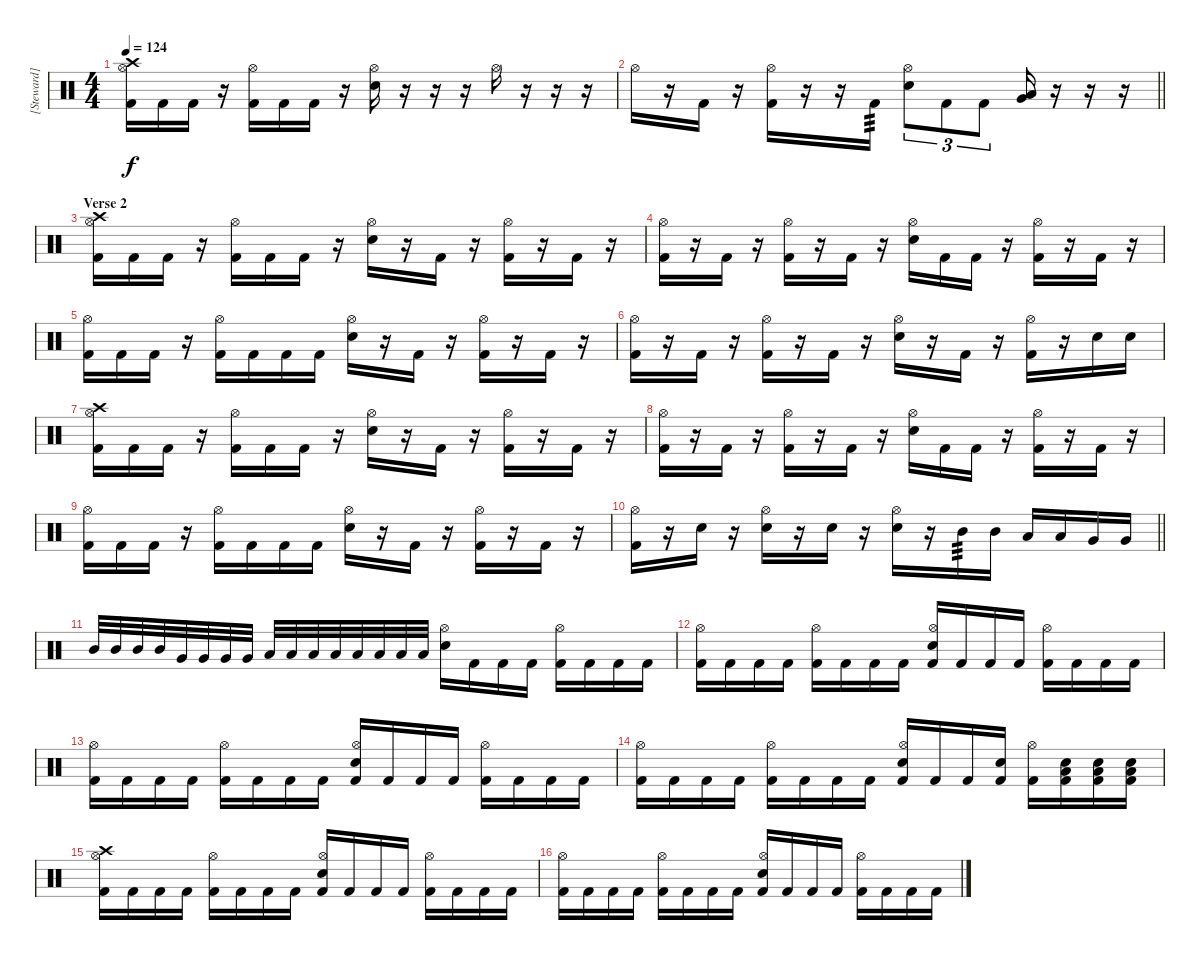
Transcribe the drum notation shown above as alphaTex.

\track ("[Steward]" "[Steward]") {solo instrument percussion}
\staff {score}
\articulation defaults
\ts (4 4)
\tempo 124
\clef neutral
\ks c
("Crash high (hit)" "Kick (hit) 2" "Hi-Hat (open)").16{dy f} "Kick (hit) 2".16 "Kick (hit) 2".16 r.16 ("Kick (hit) 2" "Hi-Hat (open)").16 "Kick (hit) 2".16 "Kick (hit) 2".16 r.16 ("Electric Snare (hit)" "Hi-Hat (open)").16 r.16 r.16 r.16 "Hi-Hat (open)".16 r.16 r.16 r.16 |
\barLineRight lightlight "Hi-Hat (open)".16
r.16 "Kick (hit) 2".16 r.16 ("Kick (hit) 2" "Hi-Hat (open)").16 r.16 r.16 "Kick (hit) 2".16{tp 3} ("Electric Snare (hit)" "Hi-Hat (open)").8{tu (3 2)} "Kick (hit) 2".8{tu (3 2)} "Kick (hit) 2".8{tu (3 2)} ("Very Low Tom (hit)" "Low Tom (hit)").16 r.16 r.16 r.16 |
\section ("" "Verse 2")
("Crash high (hit)" "Kick (hit) 2" "Hi-Hat (open)").16 "Kick (hit) 2".16 "Kick (hit) 2".16 r.16 ("Kick (hit) 2" "Hi-Hat (open)").16 "Kick (hit) 2".16 "Kick (hit) 2".16 r.16 ("Electric Snare (hit)" "Hi-Hat (open)").16 r.16 "Kick (hit) 2".16 r.16 ("Kick (hit) 2" "Hi-Hat (open)").16 r.16 "Kick (hit) 2".16 r.16 |
("Kick (hit) 2" "Hi-Hat (open)").16 r.16 "Kick (hit) 2".16 r.16 ("Kick (hit) 2" "Hi-Hat (open)").16 r.16 "Kick (hit) 2".16 r.16 ("Electric Snare (hit)" "Hi-Hat (open)").16 "Kick (hit) 2".16 "Kick (hit) 2".16 r.16 ("Kick (hit) 2" "Hi-Hat (open)").16 r.16 "Kick (hit) 2".16 r.16 |
("Kick (hit) 2" "Hi-Hat (open)").16 "Kick (hit) 2".16 "Kick (hit) 2".16 r.16 ("Kick (hit) 2" "Hi-Hat (open)").16 "Kick (hit) 2".16 "Kick (hit) 2".16 "Kick (hit) 2".16 ("Electric Snare (hit)" "Hi-Hat (open)").16 r.16 "Kick (hit) 2".16 r.16 ("Kick (hit) 2" "Hi-Hat (open)").16 r.16 "Kick (hit) 2".16 r.16 |
("Kick (hit) 2" "Hi-Hat (open)").16 r.16 "Kick (hit) 2".16 r.16 ("Kick (hit) 2" "Hi-Hat (open)").16 r.16 "Kick (hit) 2".16 r.16 ("Electric Snare (hit)" "Hi-Hat (open)").16 r.16 "Kick (hit) 2".16 r.16 ("Kick (hit) 2" "Hi-Hat (open)").16 r.16 "Electric Snare (hit)".16 "Electric Snare (hit)".16 |
("Crash high (hit)" "Kick (hit) 2" "Hi-Hat (open)").16 "Kick (hit) 2".16 "Kick (hit) 2".16 r.16 ("Kick (hit) 2" "Hi-Hat (open)").16 "Kick (hit) 2".16 "Kick (hit) 2".16 r.16 ("Electric Snare (hit)" "Hi-Hat (open)").16 r.16 "Kick (hit) 2".16 r.16 ("Kick (hit) 2" "Hi-Hat (open)").16 r.16 "Kick (hit) 2".16 r.16 |
("Kick (hit) 2" "Hi-Hat (open)").16 r.16 "Kick (hit) 2".16 r.16 ("Kick (hit) 2" "Hi-Hat (open)").16 r.16 "Kick (hit) 2".16 r.16 ("Electric Snare (hit)" "Hi-Hat (open)").16 "Kick (hit) 2".16 "Kick (hit) 2".16 r.16 ("Kick (hit) 2" "Hi-Hat (open)").16 r.16 "Kick (hit) 2".16 r.16 |
("Kick (hit) 2" "Hi-Hat (open)").16 "Kick (hit) 2".16 "Kick (hit) 2".16 r.16 ("Kick (hit) 2" "Hi-Hat (open)").16 "Kick (hit) 2".16 "Kick (hit) 2".16 "Kick (hit) 2".16 ("Electric Snare (hit)" "Hi-Hat (open)").16 r.16 "Kick (hit) 2".16 r.16 ("Kick (hit) 2" "Hi-Hat (open)").16 r.16 "Kick (hit) 2".16 r.16 |
\barLineRight lightlight
("Kick (hit) 2" "Hi-Hat (open)").16 r.16 "Electric Snare (hit)".16 r.16 ("Electric Snare (hit)" "Hi-Hat (open)").16 r.16 "Electric Snare (hit)".16 r.16 ("Electric Snare (hit)" "Hi-Hat (open)").16 r.16 "Mid Tom (hit)".16{tp 3} "Mid Tom (hit)".16 "Low Tom (hit)".16 "Low Tom (hit)".16 "Very Low Tom (hit)".16 "Very Low Tom (hit)".16 |
"Mid Tom (hit)".32 "Mid Tom (hit)".32 "Mid Tom (hit)".32 "Mid Tom (hit)".32 "Very Low Tom (hit)".32 "Very Low Tom (hit)".32 "Very Low Tom (hit)".32 "Very Low Tom (hit)".32 "Low Tom (hit)".32 "Low Tom (hit)".32 "Low Tom (hit)".32 "Low Tom (hit)".32 "Low Floor Tom (hit)".32 "Low Floor Tom (hit)".32 "Low Floor Tom (hit)".32 "Low Floor Tom (hit)".32 ("Electric Snare (hit)" "Hi-Hat (open)").16 "Kick (hit) 2".16 "Kick (hit) 2".16 "Kick (hit) 2".16 ("Kick (hit) 2" "Hi-Hat (open)").16 "Kick (hit) 2".16 "Kick (hit) 2".16 "Kick (hit) 2".16 |
("Kick (hit) 2" "Hi-Hat (open)").16 "Kick (hit) 2".16 "Kick (hit) 2".16 "Kick (hit) 2".16 ("Kick (hit) 2" "Hi-Hat (open)").16 "Kick (hit) 2".16 "Kick (hit) 2".16 "Kick (hit) 2".16 ("Electric Snare (hit)" "Kick (hit) 2" "Hi-Hat (open)").16 "Kick (hit) 2".16 "Kick (hit) 2".16 "Kick (hit) 2".16 ("Kick (hit) 2" "Hi-Hat (open)").16 "Kick (hit) 2".16 "Kick (hit) 2".16 "Kick (hit) 2".16 |
("Kick (hit) 2" "Hi-Hat (open)").16 "Kick (hit) 2".16 "Kick (hit) 2".16 "Kick (hit) 2".16 ("Kick (hit) 2" "Hi-Hat (open)").16 "Kick (hit) 2".16 "Kick (hit) 2".16 "Kick (hit) 2".16 ("Electric Snare (hit)" "Kick (hit) 2" "Hi-Hat (open)").16 "Kick (hit) 2".16 "Kick (hit) 2".16 "Kick (hit) 2".16 ("Kick (hit) 2" "Hi-Hat (open)").16 "Kick (hit) 2".16 "Kick (hit) 2".16 "Kick (hit) 2".16 |
("Kick (hit) 2" "Hi-Hat (open)").16 "Kick (hit) 2".16 "Kick (hit) 2".16 "Kick (hit) 2".16 ("Kick (hit) 2" "Hi-Hat (open)").16 "Kick (hit) 2".16 "Kick (hit) 2".16 "Kick (hit) 2".16 ("Electric Snare (hit)" "Kick (hit) 2" "Hi-Hat (open)").16 "Kick (hit) 2".16 "Kick (hit) 2".16 ("Electric Snare (hit)" "Kick (hit) 2").16 ("Kick (hit) 2" "Hi-Hat (open)").16 ("Electric Snare (hit)" "Low Tom (hit)" "Kick (hit) 2").16 ("Electric Snare (hit)" "Low Tom (hit)" "Kick (hit) 2").16 ("Electric Snare (hit)" "Low Tom (hit)" "Kick (hit) 2").16 |
("Crash high (hit)" "Kick (hit) 2" "Hi-Hat (open)").16 "Kick (hit) 2".16 "Kick (hit) 2".16 "Kick (hit) 2".16 ("Kick (hit) 2" "Hi-Hat (open)").16 "Kick (hit) 2".16 "Kick (hit) 2".16 "Kick (hit) 2".16 ("Electric Snare (hit)" "Kick (hit) 2" "Hi-Hat (open)").16 "Kick (hit) 2".16 "Kick (hit) 2".16 "Kick (hit) 2".16 ("Kick (hit) 2" "Hi-Hat (open)").16 "Kick (hit) 2".16 "Kick (hit) 2".16 "Kick (hit) 2".16 |
("Kick (hit) 2" "Hi-Hat (open)").16 "Kick (hit) 2".16 "Kick (hit) 2".16 "Kick (hit) 2".16 ("Kick (hit) 2" "Hi-Hat (open)").16 "Kick (hit) 2".16 "Kick (hit) 2".16 "Kick (hit) 2".16 ("Electric Snare (hit)" "Kick (hit) 2" "Hi-Hat (open)").16 "Kick (hit) 2".16 "Kick (hit) 2".16 "Kick (hit) 2".16 ("Kick (hit) 2" "Hi-Hat (open)").16 "Kick (hit) 2".16 "Kick (hit) 2".16 "Kick (hit) 2".16
